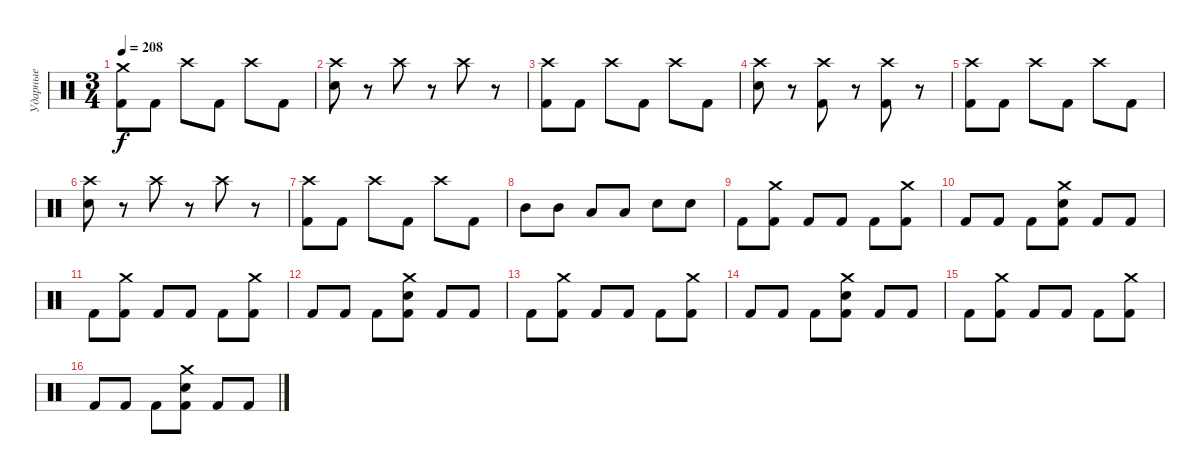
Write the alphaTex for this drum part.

\track ("Ударные" "Ударные") {instrument percussion}
\staff {score}
\articulation defaults
\ts (3 4)
\tempo 208
\clef neutral
\ks c
("Crash medium (hit)" "Kick (hit) 2").8{dy f} "Kick (hit) 2".8 "Crash high (hit)".8 "Kick (hit) 2".8 "Crash high (hit)".8 "Kick (hit) 2".8 |
("Crash high (hit)" "Electric Snare (hit)").8 r.8 "Crash high (hit)".8 r.8 "Crash high (hit)".8 r.8 |
("Crash high (hit)" "Kick (hit) 2").8 "Kick (hit) 2".8 "Crash high (hit)".8 "Kick (hit) 2".8 "Crash high (hit)".8 "Kick (hit) 2".8 |
("Crash high (hit)" "Electric Snare (hit)").8 r.8 ("Crash high (hit)" "Kick (hit) 2").8 r.8 ("Crash high (hit)" "Kick (hit) 2").8 r.8 |
("Crash high (hit)" "Kick (hit) 2").8 "Kick (hit) 2".8 "Crash high (hit)".8 "Kick (hit) 2".8 "Crash high (hit)".8 "Kick (hit) 2".8 |
("Crash high (hit)" "Electric Snare (hit)").8 r.8 "Crash high (hit)".8 r.8 "Crash high (hit)".8 r.8 |
("Crash high (hit)" "Kick (hit) 2").8 "Kick (hit) 2".8 "Crash high (hit)".8 "Kick (hit) 2".8 "Crash high (hit)".8 "Kick (hit) 2".8 |
"Mid Tom (hit)".8 "Mid Tom (hit)".8 "Low Tom (hit)".8 "Low Tom (hit)".8 "Electric Snare (hit)".8 "Electric Snare (hit)".8 |
"Kick (hit) 2".8 ("Crash medium (hit)" "Kick (hit) 2").8 "Kick (hit) 2".8 "Kick (hit) 2".8 "Kick (hit) 2".8 ("Crash medium (hit)" "Kick (hit) 2").8 |
"Kick (hit) 2".8 "Kick (hit) 2".8 "Kick (hit) 2".8 ("Crash medium (hit)" "Electric Snare (hit)" "Kick (hit) 2").8 "Kick (hit) 2".8 "Kick (hit) 2".8 |
"Kick (hit) 2".8 ("Crash medium (hit)" "Kick (hit) 2").8 "Kick (hit) 2".8 "Kick (hit) 2".8 "Kick (hit) 2".8 ("Crash medium (hit)" "Kick (hit) 2").8 |
"Kick (hit) 2".8 "Kick (hit) 2".8 "Kick (hit) 2".8 ("Crash medium (hit)" "Electric Snare (hit)" "Kick (hit) 2").8 "Kick (hit) 2".8 "Kick (hit) 2".8 |
"Kick (hit) 2".8 ("Crash medium (hit)" "Kick (hit) 2").8 "Kick (hit) 2".8 "Kick (hit) 2".8 "Kick (hit) 2".8 ("Crash medium (hit)" "Kick (hit) 2").8 |
"Kick (hit) 2".8 "Kick (hit) 2".8 "Kick (hit) 2".8 ("Crash medium (hit)" "Electric Snare (hit)" "Kick (hit) 2").8 "Kick (hit) 2".8 "Kick (hit) 2".8 |
"Kick (hit) 2".8 ("Crash medium (hit)" "Kick (hit) 2").8 "Kick (hit) 2".8 "Kick (hit) 2".8 "Kick (hit) 2".8 ("Crash medium (hit)" "Kick (hit) 2").8 |
"Kick (hit) 2".8 "Kick (hit) 2".8 "Kick (hit) 2".8 ("Crash medium (hit)" "Electric Snare (hit)" "Kick (hit) 2").8 "Kick (hit) 2".8 "Kick (hit) 2".8
